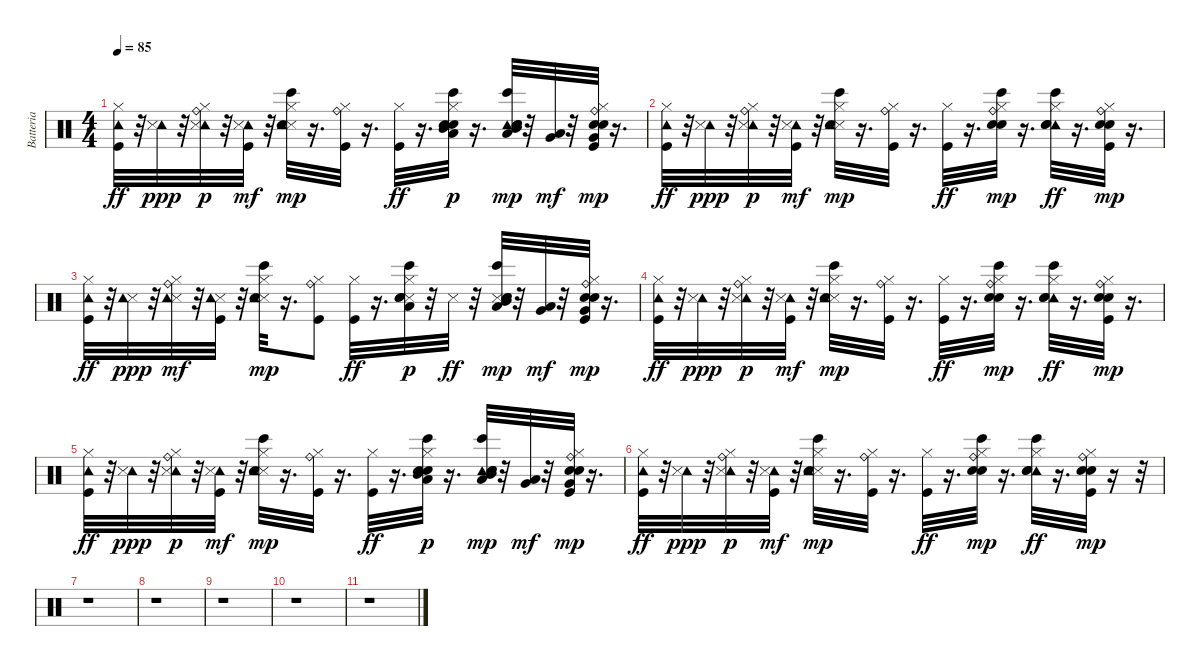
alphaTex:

\track ("Batteria" "Batteria") {instrument percussion}
\staff {score}
\articulation defaults
\ts (4 4)
\tempo 85
\clef neutral
\ks c
("Kick (hit)" "Hi-Hat (closed)" "Tambourine (hit)").32{dy ff} r.32 ("Tambourine (hit)" "Metronome (hit)").32{dy ppp} r.32 ("Tambourine (hit)" "Metronome (hit)" "Hi-Hat (closed)" "Ride (bell)").32{dy p} r.32 ("Tambourine (hit)" "Metronome (hit)" "Kick (hit)").32{dy mf} r.32 ("Bongo High (hit)" "Metronome (hit)" "Snare (hit) 2" "Hi-Hat (closed)" "Tambourine (hit)").32{dy mp} r.16{d} ("Kick (hit)" "Hi-Hat (closed)" "Ride (bell)").32 r.16{d} ("Kick (hit)" "Hi-Hat (closed)").32{dy ff} r.16{d} ("Low Tom (hit)" "Bongo High (hit)" "Snare (hit) 2" "Hand Clap (hit)" "Hi-Hat (closed)" "Mid Tom (hit)").32{dy p} r.16{d} ("Tambourine (hit)" "Low Tom (hit)" "Mid Tom (hit)" "Bongo High (hit)" "Snare (hit) 2" "Hand Clap (hit)").32{dy mp} r.32 ("Low Tom (hit)" "Very Low Tom (hit)").32{dy mf} r.32 ("Very Low Tom (hit)" "Kick (hit)" "Snare (hit) 2" "Hand Clap (hit)" "Hi-Hat (closed)" "Ride (bell)").32{dy mp} r.16{d} |
("Kick (hit)" "Hi-Hat (closed)" "Tambourine (hit)").32{dy ff} r.32 ("Tambourine (hit)" "Metronome (hit)").32{dy ppp} r.32 ("Tambourine (hit)" "Metronome (hit)" "Hi-Hat (closed)" "Ride (bell)").32{dy p} r.32 ("Tambourine (hit)" "Metronome (hit)" "Kick (hit)").32{dy mf} r.32 ("Bongo High (hit)" "Metronome (hit)" "Snare (hit) 2" "Hi-Hat (closed)" "Tambourine (hit)").32{dy mp} r.16{d} ("Kick (hit)" "Hi-Hat (closed)" "Ride (bell)").32 r.16{d} ("Kick (hit)" "Hi-Hat (closed)").32{dy ff} r.16{d} ("Bongo High (hit)" "Snare (hit) 2" "Hand Clap (hit)" "Hi-Hat (closed)" "Ride (bell)").32{dy mp} r.16{d} ("Tambourine (hit)" "Bongo High (hit)" "Snare (hit) 2" "Hand Clap (hit)" "Hi-Hat (closed)").32{dy ff} r.16{d} ("Kick (hit)" "Snare (hit) 2" "Hand Clap (hit)" "Hi-Hat (closed)" "Ride (bell)").32{dy mp} r.16{d} |
("Kick (hit)" "Hi-Hat (closed)" "Tambourine (hit)").32{dy ff} r.32 ("Metronome (hit)" "Tambourine (hit)").32{dy ppp} r.32 ("Metronome (hit)" "Hi-Hat (closed)" "Ride (bell)" "Tambourine (hit)").32{dy mf} r.32 ("Metronome (hit)" "Kick (hit)" "Tambourine (hit)").32 r.32 ("Bongo High (hit)" "Metronome (hit)" "Snare (hit) 2" "Hi-Hat (closed)" "Tambourine (hit)").32{dy mp} r.16{d} ("Kick (hit)" "Hi-Hat (closed)" "Ride (bell)").8 ("Kick (hit)" "Hi-Hat (closed)").32{dy ff} r.16{d} ("Low Tom (hit)" "Bongo High (hit)" "Metronome (hit)" "Snare (hit) 2" "Hand Clap (hit)" "Hi-Hat (closed)").32{dy p} r.32 "Metronome (hit)".32{dy ff} r.32 ("Low Tom (hit)" "Mid Tom (hit)" "Bongo High (hit)" "Metronome (hit)" "Snare (hit) 2" "Hand Clap (hit)").32{dy mp} r.32 ("Low Tom (hit)" "Very Low Tom (hit)").32{dy mf} r.32 ("Very Low Tom (hit)" "Kick (hit)" "Snare (hit) 2" "Hand Clap (hit)" "Hi-Hat (closed)" "Ride (bell)").32{dy mp} r.16{d} |
("Kick (hit)" "Hi-Hat (closed)" "Tambourine (hit)").32{dy ff} r.32 ("Tambourine (hit)" "Metronome (hit)").32{dy ppp} r.32 ("Tambourine (hit)" "Metronome (hit)" "Hi-Hat (closed)" "Ride (bell)").32{dy p} r.32 ("Tambourine (hit)" "Metronome (hit)" "Kick (hit)").32{dy mf} r.32 ("Bongo High (hit)" "Metronome (hit)" "Snare (hit) 2" "Hi-Hat (closed)" "Tambourine (hit)").32{dy mp} r.16{d} ("Kick (hit)" "Hi-Hat (closed)" "Ride (bell)").32 r.16{d} ("Kick (hit)" "Hi-Hat (closed)").32{dy ff} r.16{d} ("Bongo High (hit)" "Snare (hit) 2" "Hand Clap (hit)" "Hi-Hat (closed)" "Ride (bell)").32{dy mp} r.16{d} ("Tambourine (hit)" "Bongo High (hit)" "Snare (hit) 2" "Hand Clap (hit)" "Hi-Hat (closed)").32{dy ff} r.16{d} ("Kick (hit)" "Snare (hit) 2" "Hand Clap (hit)" "Hi-Hat (closed)" "Ride (bell)").32{dy mp} r.16{d} |
("Kick (hit)" "Hi-Hat (closed)" "Tambourine (hit)").32{dy ff} r.32 ("Tambourine (hit)" "Metronome (hit)").32{dy ppp} r.32 ("Tambourine (hit)" "Metronome (hit)" "Hi-Hat (closed)" "Ride (bell)").32{dy p} r.32 ("Tambourine (hit)" "Metronome (hit)" "Kick (hit)").32{dy mf} r.32 ("Bongo High (hit)" "Metronome (hit)" "Snare (hit) 2" "Hi-Hat (closed)" "Tambourine (hit)").32{dy mp} r.16{d} ("Kick (hit)" "Hi-Hat (closed)" "Ride (bell)").32 r.16{d} ("Kick (hit)" "Hi-Hat (closed)").32{dy ff} r.16{d} ("Low Tom (hit)" "Bongo High (hit)" "Snare (hit) 2" "Hand Clap (hit)" "Hi-Hat (closed)" "Mid Tom (hit)").32{dy p} r.16{d} ("Tambourine (hit)" "Low Tom (hit)" "Mid Tom (hit)" "Bongo High (hit)" "Snare (hit) 2" "Hand Clap (hit)").32{dy mp} r.32 ("Low Tom (hit)" "Very Low Tom (hit)").32{dy mf} r.32 ("Very Low Tom (hit)" "Kick (hit)" "Snare (hit) 2" "Hand Clap (hit)" "Hi-Hat (closed)" "Ride (bell)").32{dy mp} r.16{d} |
("Kick (hit)" "Hi-Hat (closed)" "Tambourine (hit)").32{dy ff} r.32 ("Tambourine (hit)" "Metronome (hit)").32{dy ppp} r.32 ("Tambourine (hit)" "Metronome (hit)" "Hi-Hat (closed)" "Ride (bell)").32{dy p} r.32 ("Tambourine (hit)" "Metronome (hit)" "Kick (hit)").32{dy mf} r.32 ("Bongo High (hit)" "Metronome (hit)" "Snare (hit) 2" "Hi-Hat (closed)" "Tambourine (hit)").32{dy mp} r.16{d} ("Kick (hit)" "Hi-Hat (closed)" "Ride (bell)").32 r.16{d} ("Kick (hit)" "Hi-Hat (closed)").32{dy ff} r.16{d} ("Bongo High (hit)" "Snare (hit) 2" "Hand Clap (hit)" "Hi-Hat (closed)" "Ride (bell)").32{dy mp} r.16{d} ("Tambourine (hit)" "Bongo High (hit)" "Snare (hit) 2" "Hand Clap (hit)" "Hi-Hat (closed)").32{dy ff} r.16{d} ("Kick (hit)" "Snare (hit) 2" "Hand Clap (hit)" "Hi-Hat (closed)" "Ride (bell)").32{dy mp} r.16 r.32 |
r.1 |
r.1 |
r.1 |
r.1 |
r.1
